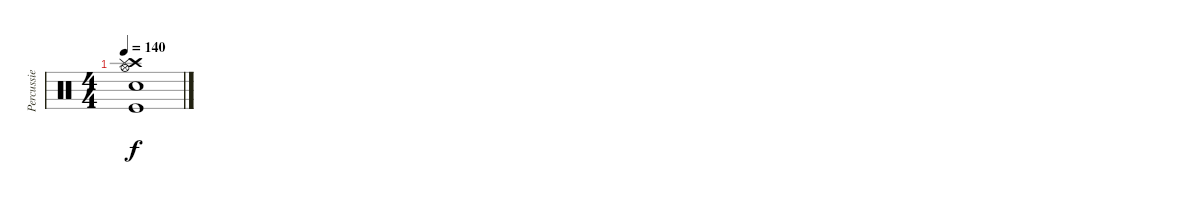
\track ("Percussie" "Percussie") {instrument percussion}
\staff {score}
\articulation defaults
\ts (4 4)
\tempo 140
\clef neutral
\ks c
("Crash high (hit)" "Splash (hit)" "Hi-Hat (open)" "Snare (hit) 2" "Kick (hit)").1{dy f}
